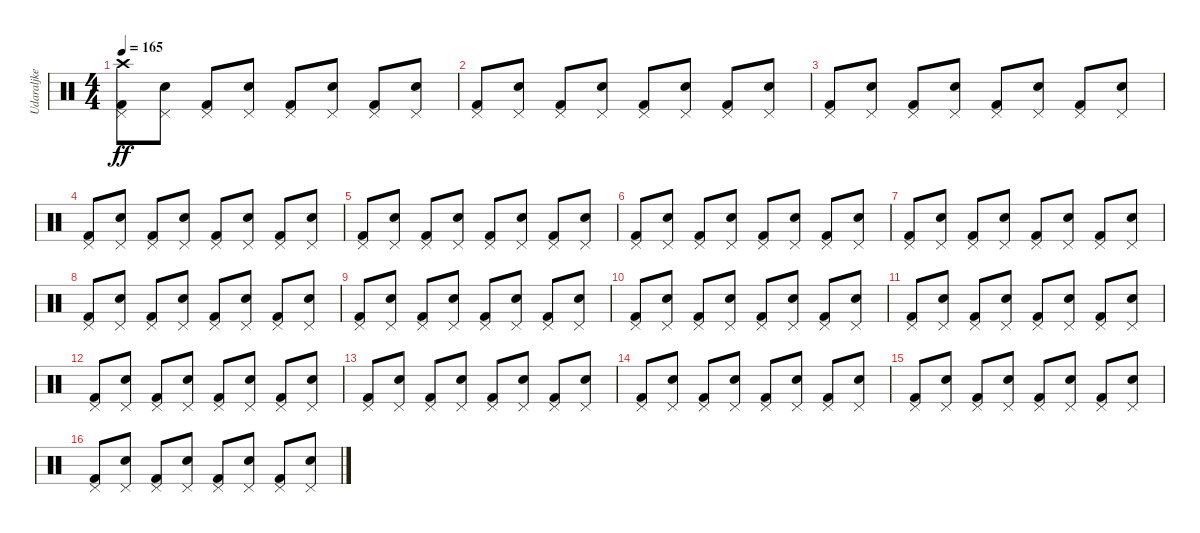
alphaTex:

\track ("Udaraljke" "Udaraljke") {instrument percussion}
\staff {score}
\articulation defaults
\ts (4 4)
\tempo 165
\clef neutral
\ks c
("Kick (hit) 2" "Pedal Hi-Hat (hit)" "Crash high (hit)").8{dy ff} ("Snare (hit) 2" "Pedal Hi-Hat (hit)").8 ("Kick (hit) 2" "Pedal Hi-Hat (hit)").8 ("Snare (hit) 2" "Pedal Hi-Hat (hit)").8 ("Kick (hit) 2" "Pedal Hi-Hat (hit)").8 ("Snare (hit) 2" "Pedal Hi-Hat (hit)").8 ("Kick (hit) 2" "Pedal Hi-Hat (hit)").8 ("Snare (hit) 2" "Pedal Hi-Hat (hit)").8 |
("Kick (hit) 2" "Pedal Hi-Hat (hit)").8 ("Snare (hit) 2" "Pedal Hi-Hat (hit)").8 ("Kick (hit) 2" "Pedal Hi-Hat (hit)").8 ("Snare (hit) 2" "Pedal Hi-Hat (hit)").8 ("Kick (hit) 2" "Pedal Hi-Hat (hit)").8 ("Snare (hit) 2" "Pedal Hi-Hat (hit)").8 ("Kick (hit) 2" "Pedal Hi-Hat (hit)").8 ("Snare (hit) 2" "Pedal Hi-Hat (hit)").8 |
("Kick (hit) 2" "Pedal Hi-Hat (hit)").8 ("Snare (hit) 2" "Pedal Hi-Hat (hit)").8 ("Kick (hit) 2" "Pedal Hi-Hat (hit)").8 ("Snare (hit) 2" "Pedal Hi-Hat (hit)").8 ("Kick (hit) 2" "Pedal Hi-Hat (hit)").8 ("Snare (hit) 2" "Pedal Hi-Hat (hit)").8 ("Kick (hit) 2" "Pedal Hi-Hat (hit)").8 ("Snare (hit) 2" "Pedal Hi-Hat (hit)").8 |
("Kick (hit) 2" "Pedal Hi-Hat (hit)").8 ("Snare (hit) 2" "Pedal Hi-Hat (hit)").8 ("Kick (hit) 2" "Pedal Hi-Hat (hit)").8 ("Snare (hit) 2" "Pedal Hi-Hat (hit)").8 ("Kick (hit) 2" "Pedal Hi-Hat (hit)").8 ("Snare (hit) 2" "Pedal Hi-Hat (hit)").8 ("Kick (hit) 2" "Pedal Hi-Hat (hit)").8 ("Snare (hit) 2" "Pedal Hi-Hat (hit)").8 |
("Kick (hit) 2" "Pedal Hi-Hat (hit)").8 ("Snare (hit) 2" "Pedal Hi-Hat (hit)").8 ("Kick (hit) 2" "Pedal Hi-Hat (hit)").8 ("Snare (hit) 2" "Pedal Hi-Hat (hit)").8 ("Kick (hit) 2" "Pedal Hi-Hat (hit)").8 ("Snare (hit) 2" "Pedal Hi-Hat (hit)").8 ("Kick (hit) 2" "Pedal Hi-Hat (hit)").8 ("Snare (hit) 2" "Pedal Hi-Hat (hit)").8 |
("Kick (hit) 2" "Pedal Hi-Hat (hit)").8 ("Snare (hit) 2" "Pedal Hi-Hat (hit)").8 ("Kick (hit) 2" "Pedal Hi-Hat (hit)").8 ("Snare (hit) 2" "Pedal Hi-Hat (hit)").8 ("Kick (hit) 2" "Pedal Hi-Hat (hit)").8 ("Snare (hit) 2" "Pedal Hi-Hat (hit)").8 ("Kick (hit) 2" "Pedal Hi-Hat (hit)").8 ("Snare (hit) 2" "Pedal Hi-Hat (hit)").8 |
("Kick (hit) 2" "Pedal Hi-Hat (hit)").8 ("Snare (hit) 2" "Pedal Hi-Hat (hit)").8 ("Kick (hit) 2" "Pedal Hi-Hat (hit)").8 ("Snare (hit) 2" "Pedal Hi-Hat (hit)").8 ("Kick (hit) 2" "Pedal Hi-Hat (hit)").8 ("Snare (hit) 2" "Pedal Hi-Hat (hit)").8 ("Kick (hit) 2" "Pedal Hi-Hat (hit)").8 ("Snare (hit) 2" "Pedal Hi-Hat (hit)").8 |
("Kick (hit) 2" "Pedal Hi-Hat (hit)").8 ("Snare (hit) 2" "Pedal Hi-Hat (hit)").8 ("Kick (hit) 2" "Pedal Hi-Hat (hit)").8 ("Snare (hit) 2" "Pedal Hi-Hat (hit)").8 ("Kick (hit) 2" "Pedal Hi-Hat (hit)").8 ("Snare (hit) 2" "Pedal Hi-Hat (hit)").8 ("Kick (hit) 2" "Pedal Hi-Hat (hit)").8 ("Snare (hit) 2" "Pedal Hi-Hat (hit)").8 |
("Kick (hit) 2" "Pedal Hi-Hat (hit)").8 ("Snare (hit) 2" "Pedal Hi-Hat (hit)").8 ("Kick (hit) 2" "Pedal Hi-Hat (hit)").8 ("Snare (hit) 2" "Pedal Hi-Hat (hit)").8 ("Kick (hit) 2" "Pedal Hi-Hat (hit)").8 ("Snare (hit) 2" "Pedal Hi-Hat (hit)").8 ("Kick (hit) 2" "Pedal Hi-Hat (hit)").8 ("Snare (hit) 2" "Pedal Hi-Hat (hit)").8 |
("Kick (hit) 2" "Pedal Hi-Hat (hit)").8 ("Snare (hit) 2" "Pedal Hi-Hat (hit)").8 ("Kick (hit) 2" "Pedal Hi-Hat (hit)").8 ("Snare (hit) 2" "Pedal Hi-Hat (hit)").8 ("Kick (hit) 2" "Pedal Hi-Hat (hit)").8 ("Snare (hit) 2" "Pedal Hi-Hat (hit)").8 ("Kick (hit) 2" "Pedal Hi-Hat (hit)").8 ("Snare (hit) 2" "Pedal Hi-Hat (hit)").8 |
("Kick (hit) 2" "Pedal Hi-Hat (hit)").8 ("Snare (hit) 2" "Pedal Hi-Hat (hit)").8 ("Kick (hit) 2" "Pedal Hi-Hat (hit)").8 ("Snare (hit) 2" "Pedal Hi-Hat (hit)").8 ("Kick (hit) 2" "Pedal Hi-Hat (hit)").8 ("Snare (hit) 2" "Pedal Hi-Hat (hit)").8 ("Kick (hit) 2" "Pedal Hi-Hat (hit)").8 ("Snare (hit) 2" "Pedal Hi-Hat (hit)").8 |
("Kick (hit) 2" "Pedal Hi-Hat (hit)").8 ("Snare (hit) 2" "Pedal Hi-Hat (hit)").8 ("Kick (hit) 2" "Pedal Hi-Hat (hit)").8 ("Snare (hit) 2" "Pedal Hi-Hat (hit)").8 ("Kick (hit) 2" "Pedal Hi-Hat (hit)").8 ("Snare (hit) 2" "Pedal Hi-Hat (hit)").8 ("Kick (hit) 2" "Pedal Hi-Hat (hit)").8 ("Snare (hit) 2" "Pedal Hi-Hat (hit)").8 |
("Kick (hit) 2" "Pedal Hi-Hat (hit)").8 ("Snare (hit) 2" "Pedal Hi-Hat (hit)").8 ("Kick (hit) 2" "Pedal Hi-Hat (hit)").8 ("Snare (hit) 2" "Pedal Hi-Hat (hit)").8 ("Kick (hit) 2" "Pedal Hi-Hat (hit)").8 ("Snare (hit) 2" "Pedal Hi-Hat (hit)").8 ("Kick (hit) 2" "Pedal Hi-Hat (hit)").8 ("Snare (hit) 2" "Pedal Hi-Hat (hit)").8 |
("Kick (hit) 2" "Pedal Hi-Hat (hit)").8 ("Snare (hit) 2" "Pedal Hi-Hat (hit)").8 ("Kick (hit) 2" "Pedal Hi-Hat (hit)").8 ("Snare (hit) 2" "Pedal Hi-Hat (hit)").8 ("Kick (hit) 2" "Pedal Hi-Hat (hit)").8 ("Snare (hit) 2" "Pedal Hi-Hat (hit)").8 ("Kick (hit) 2" "Pedal Hi-Hat (hit)").8 ("Snare (hit) 2" "Pedal Hi-Hat (hit)").8 |
("Kick (hit) 2" "Pedal Hi-Hat (hit)").8 ("Snare (hit) 2" "Pedal Hi-Hat (hit)").8 ("Kick (hit) 2" "Pedal Hi-Hat (hit)").8 ("Snare (hit) 2" "Pedal Hi-Hat (hit)").8 ("Kick (hit) 2" "Pedal Hi-Hat (hit)").8 ("Snare (hit) 2" "Pedal Hi-Hat (hit)").8 ("Kick (hit) 2" "Pedal Hi-Hat (hit)").8 ("Snare (hit) 2" "Pedal Hi-Hat (hit)").8 |
("Kick (hit) 2" "Pedal Hi-Hat (hit)").8 ("Snare (hit) 2" "Pedal Hi-Hat (hit)").8 ("Kick (hit) 2" "Pedal Hi-Hat (hit)").8 ("Snare (hit) 2" "Pedal Hi-Hat (hit)").8 ("Kick (hit) 2" "Pedal Hi-Hat (hit)").8 ("Snare (hit) 2" "Pedal Hi-Hat (hit)").8 ("Kick (hit) 2" "Pedal Hi-Hat (hit)").8 ("Snare (hit) 2" "Pedal Hi-Hat (hit)").8
